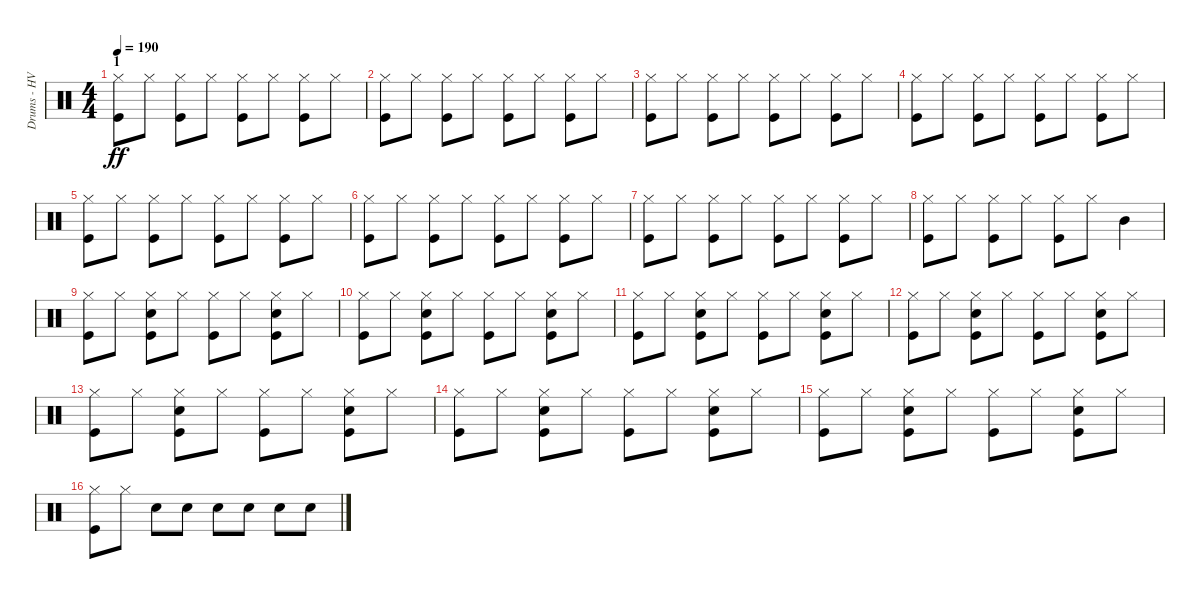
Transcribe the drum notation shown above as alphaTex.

\track ("Drums - HV NikiTon" "Drums - HV") {instrument percussion}
\staff {score}
\articulation defaults
\ts (4 4)
\section ("" "1")
\tempo 190
\clef neutral
\ks c
("Hi-Hat (closed)" "Kick (hit)").8{dy ff} "Hi-Hat (closed)".8 ("Hi-Hat (closed)" "Kick (hit)").8 "Hi-Hat (closed)".8 ("Hi-Hat (closed)" "Kick (hit)").8 "Hi-Hat (closed)".8 ("Hi-Hat (closed)" "Kick (hit)").8 "Hi-Hat (closed)".8 |
("Hi-Hat (closed)" "Kick (hit)").8 "Hi-Hat (closed)".8 ("Hi-Hat (closed)" "Kick (hit)").8 "Hi-Hat (closed)".8 ("Hi-Hat (closed)" "Kick (hit)").8 "Hi-Hat (closed)".8 ("Hi-Hat (closed)" "Kick (hit)").8 "Hi-Hat (closed)".8 |
("Hi-Hat (closed)" "Kick (hit)").8 "Hi-Hat (closed)".8 ("Hi-Hat (closed)" "Kick (hit)").8 "Hi-Hat (closed)".8 ("Hi-Hat (closed)" "Kick (hit)").8 "Hi-Hat (closed)".8 ("Hi-Hat (closed)" "Kick (hit)").8 "Hi-Hat (closed)".8 |
("Hi-Hat (closed)" "Kick (hit)").8 "Hi-Hat (closed)".8 ("Hi-Hat (closed)" "Kick (hit)").8 "Hi-Hat (closed)".8 ("Hi-Hat (closed)" "Kick (hit)").8 "Hi-Hat (closed)".8 ("Hi-Hat (closed)" "Kick (hit)").8 "Hi-Hat (closed)".8 |
("Hi-Hat (closed)" "Kick (hit)").8 "Hi-Hat (closed)".8 ("Hi-Hat (closed)" "Kick (hit)").8 "Hi-Hat (closed)".8 ("Hi-Hat (closed)" "Kick (hit)").8 "Hi-Hat (closed)".8 ("Hi-Hat (closed)" "Kick (hit)").8 "Hi-Hat (closed)".8 |
("Hi-Hat (closed)" "Kick (hit)").8 "Hi-Hat (closed)".8 ("Hi-Hat (closed)" "Kick (hit)").8 "Hi-Hat (closed)".8 ("Hi-Hat (closed)" "Kick (hit)").8 "Hi-Hat (closed)".8 ("Hi-Hat (closed)" "Kick (hit)").8 "Hi-Hat (closed)".8 |
("Hi-Hat (closed)" "Kick (hit)").8 "Hi-Hat (closed)".8 ("Hi-Hat (closed)" "Kick (hit)").8 "Hi-Hat (closed)".8 ("Hi-Hat (closed)" "Kick (hit)").8 "Hi-Hat (closed)".8 ("Hi-Hat (closed)" "Kick (hit)").8 "Hi-Hat (closed)".8 |
("Hi-Hat (closed)" "Kick (hit)").8 "Hi-Hat (closed)".8 ("Hi-Hat (closed)" "Kick (hit)").8 "Hi-Hat (closed)".8 ("Hi-Hat (closed)" "Kick (hit)").8 "Hi-Hat (closed)".8 "Mid Tom (hit)".4 |
("Hi-Hat (closed)" "Kick (hit)").8 "Hi-Hat (closed)".8 ("Hi-Hat (closed)" "Kick (hit)" "Electric Snare (hit)").8 "Hi-Hat (closed)".8 ("Hi-Hat (closed)" "Kick (hit)").8 "Hi-Hat (closed)".8 ("Hi-Hat (closed)" "Kick (hit)" "Electric Snare (hit)").8 "Hi-Hat (closed)".8 |
("Hi-Hat (closed)" "Kick (hit)").8 "Hi-Hat (closed)".8 ("Hi-Hat (closed)" "Kick (hit)" "Electric Snare (hit)").8 "Hi-Hat (closed)".8 ("Hi-Hat (closed)" "Kick (hit)").8 "Hi-Hat (closed)".8 ("Hi-Hat (closed)" "Kick (hit)" "Electric Snare (hit)").8 "Hi-Hat (closed)".8 |
("Hi-Hat (closed)" "Kick (hit)").8 "Hi-Hat (closed)".8 ("Hi-Hat (closed)" "Kick (hit)" "Electric Snare (hit)").8 "Hi-Hat (closed)".8 ("Hi-Hat (closed)" "Kick (hit)").8 "Hi-Hat (closed)".8 ("Hi-Hat (closed)" "Kick (hit)" "Electric Snare (hit)").8 "Hi-Hat (closed)".8 |
("Hi-Hat (closed)" "Kick (hit)").8 "Hi-Hat (closed)".8 ("Hi-Hat (closed)" "Kick (hit)" "Electric Snare (hit)").8 "Hi-Hat (closed)".8 ("Hi-Hat (closed)" "Kick (hit)").8 "Hi-Hat (closed)".8 ("Hi-Hat (closed)" "Kick (hit)" "Electric Snare (hit)").8 "Hi-Hat (closed)".8 |
("Hi-Hat (closed)" "Kick (hit)").8 "Hi-Hat (closed)".8 ("Hi-Hat (closed)" "Kick (hit)" "Electric Snare (hit)").8 "Hi-Hat (closed)".8 ("Hi-Hat (closed)" "Kick (hit)").8 "Hi-Hat (closed)".8 ("Hi-Hat (closed)" "Kick (hit)" "Electric Snare (hit)").8 "Hi-Hat (closed)".8 |
("Hi-Hat (closed)" "Kick (hit)").8 "Hi-Hat (closed)".8 ("Hi-Hat (closed)" "Kick (hit)" "Electric Snare (hit)").8 "Hi-Hat (closed)".8 ("Hi-Hat (closed)" "Kick (hit)").8 "Hi-Hat (closed)".8 ("Hi-Hat (closed)" "Kick (hit)" "Electric Snare (hit)").8 "Hi-Hat (closed)".8 |
("Hi-Hat (closed)" "Kick (hit)").8 "Hi-Hat (closed)".8 ("Hi-Hat (closed)" "Kick (hit)" "Electric Snare (hit)").8 "Hi-Hat (closed)".8 ("Hi-Hat (closed)" "Kick (hit)").8 "Hi-Hat (closed)".8 ("Hi-Hat (closed)" "Kick (hit)" "Electric Snare (hit)").8 "Hi-Hat (closed)".8 |
("Hi-Hat (closed)" "Kick (hit)").8 "Hi-Hat (closed)".8 "Electric Snare (hit)".8 "Electric Snare (hit)".8 "Electric Snare (hit)".8 "Electric Snare (hit)".8 "Electric Snare (hit)".8 "Electric Snare (hit)".8
